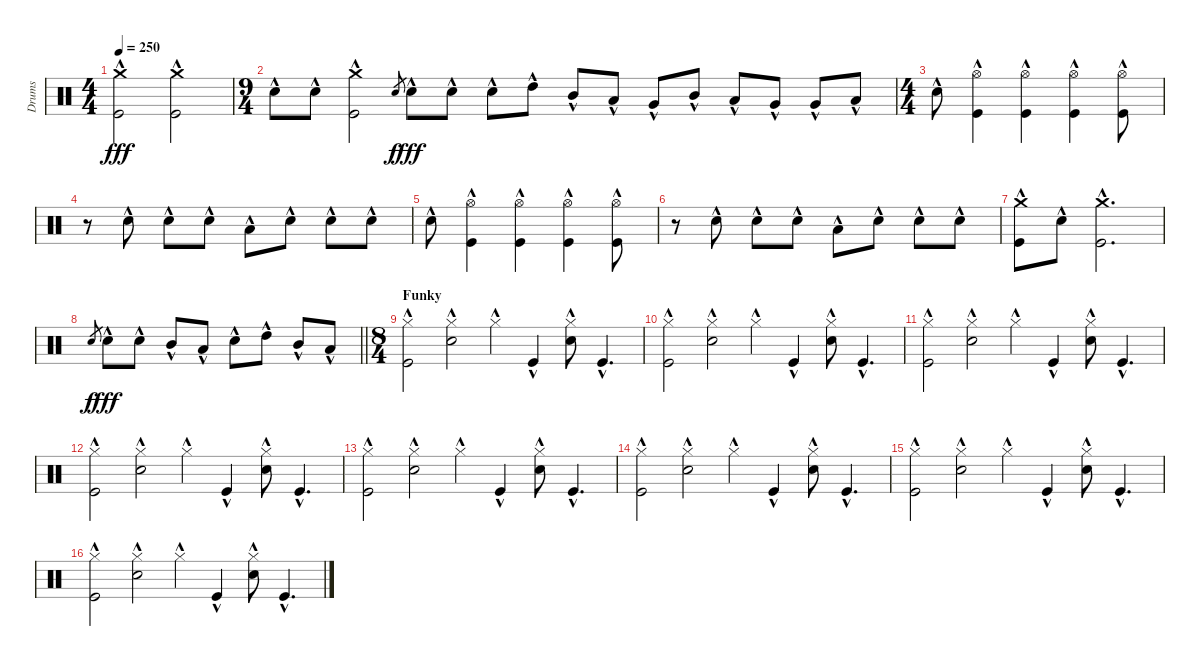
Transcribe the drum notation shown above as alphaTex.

\track ("Drums" "Drums") {instrument percussion}
\staff {score}
\articulation defaults
\ts (4 4)
\tempo 250
\clef neutral
\ks c
("Crash medium (hit)"{hac} "Kick (hit)"{hac}).2{dy fff} ("Crash medium (hit)"{hac} "Kick (hit)"{hac}).2 |
\ts (9 4)
"Snare (hit) 2"{hac}.8 "Snare (hit) 2"{hac}.8 ("Crash medium (hit)"{hac} "Kick (hit)"{hac}).2 "Snare (hit) 2".8{gr dy f} "Snare (hit) 2"{hac}.8{dy fff} "Snare (hit) 2"{hac}.8 "Snare (hit) 2"{hac}.8 "High Tom (hit)"{hac}.8 "Mid Tom (hit)"{hac}.8 "Low Tom (hit)"{hac}.8 "Very Low Tom (hit)"{hac}.8 "Mid Tom (hit)"{hac}.8 "Low Tom (hit)"{hac}.8 "Very Low Tom (hit)"{hac}.8 "Very Low Tom (hit)"{hac}.8 "Low Floor Tom (hit)"{hac}.8 |
\ts (4 4)
"Snare (hit) 2"{hac}.8 ("Hi-Hat (open)"{hac} "Kick (hit)"{hac}).4 ("Hi-Hat (open)"{hac} "Kick (hit)"{hac}).4 ("Hi-Hat (open)"{hac} "Kick (hit)"{hac}).4 ("Hi-Hat (open)"{hac} "Kick (hit)"{hac}).8 |
r.8 "Snare (hit) 2"{hac}.8 "Snare (hit) 2"{hac}.8 "Snare (hit) 2"{hac}.8 "Low Tom (hit)"{hac}.8 "Snare (hit) 2"{hac}.8 "Snare (hit) 2"{hac}.8 "Snare (hit) 2"{hac}.8 |
"Snare (hit) 2"{hac}.8 ("Hi-Hat (open)"{hac} "Kick (hit)"{hac}).4 ("Hi-Hat (open)"{hac} "Kick (hit)"{hac}).4 ("Hi-Hat (open)"{hac} "Kick (hit)"{hac}).4 ("Hi-Hat (open)"{hac} "Kick (hit)"{hac}).8 |
r.8 "Snare (hit) 2"{hac}.8 "Snare (hit) 2"{hac}.8 "Snare (hit) 2"{hac}.8 "Low Tom (hit)"{hac}.8 "Snare (hit) 2"{hac}.8 "Snare (hit) 2"{hac}.8 "Snare (hit) 2"{hac}.8 |
("Crash medium (hit)"{hac} "Kick (hit)"{hac}).8 "Snare (hit) 2"{hac}.8 ("Crash medium (hit)"{hac} "Kick (hit)"{hac}).2{d} |
\barLineRight lightlight "Snare (hit) 2".8{gr dy f} "Snare (hit) 2"{hac}.8{dy fff} "Snare (hit) 2"{hac}.8 "Mid Tom (hit)"{hac}.8 "Low Tom (hit)"{hac}.8 "Snare (hit) 2"{hac}.8 "High Tom (hit)"{hac}.8 "Mid Tom (hit)"{hac}.8 "Low Tom (hit)"{hac}.8
|
\ts (8 4)
\section ("" "Funky")
("Hi-Hat (closed)"{hac} "Kick (hit)"{hac}).2 ("Hi-Hat (closed)"{hac} "Snare (hit) 2"{hac}).2 "Hi-Hat (closed)"{hac}.4 "Kick (hit)"{hac}.4 ("Hi-Hat (closed)"{hac} "Snare (hit) 2"{hac}).8 "Kick (hit)"{hac}.4{d} |
("Hi-Hat (closed)"{hac} "Kick (hit)"{hac}).2 ("Hi-Hat (closed)"{hac} "Snare (hit) 2"{hac}).2 "Hi-Hat (closed)"{hac}.4 "Kick (hit)"{hac}.4 ("Hi-Hat (closed)"{hac} "Snare (hit) 2"{hac}).8 "Kick (hit)"{hac}.4{d} |
("Hi-Hat (closed)"{hac} "Kick (hit)"{hac}).2 ("Hi-Hat (closed)"{hac} "Snare (hit) 2"{hac}).2 "Hi-Hat (closed)"{hac}.4 "Kick (hit)"{hac}.4 ("Hi-Hat (closed)"{hac} "Snare (hit) 2"{hac}).8 "Kick (hit)"{hac}.4{d} |
("Hi-Hat (closed)"{hac} "Kick (hit)"{hac}).2 ("Hi-Hat (closed)"{hac} "Snare (hit) 2"{hac}).2 "Hi-Hat (closed)"{hac}.4 "Kick (hit)"{hac}.4 ("Hi-Hat (closed)"{hac} "Snare (hit) 2"{hac}).8 "Kick (hit)"{hac}.4{d} |
("Hi-Hat (closed)"{hac} "Kick (hit)"{hac}).2 ("Hi-Hat (closed)"{hac} "Snare (hit) 2"{hac}).2 "Hi-Hat (closed)"{hac}.4 "Kick (hit)"{hac}.4 ("Hi-Hat (closed)"{hac} "Snare (hit) 2"{hac}).8 "Kick (hit)"{hac}.4{d} |
("Hi-Hat (closed)"{hac} "Kick (hit)"{hac}).2 ("Hi-Hat (closed)"{hac} "Snare (hit) 2"{hac}).2 "Hi-Hat (closed)"{hac}.4 "Kick (hit)"{hac}.4 ("Hi-Hat (closed)"{hac} "Snare (hit) 2"{hac}).8 "Kick (hit)"{hac}.4{d} |
("Hi-Hat (closed)"{hac} "Kick (hit)"{hac}).2 ("Hi-Hat (closed)"{hac} "Snare (hit) 2"{hac}).2 "Hi-Hat (closed)"{hac}.4 "Kick (hit)"{hac}.4 ("Hi-Hat (closed)"{hac} "Snare (hit) 2"{hac}).8 "Kick (hit)"{hac}.4{d} |
("Hi-Hat (closed)"{hac} "Kick (hit)"{hac}).2 ("Hi-Hat (closed)"{hac} "Snare (hit) 2"{hac}).2 "Hi-Hat (closed)"{hac}.4 "Kick (hit)"{hac}.4 ("Hi-Hat (closed)"{hac} "Snare (hit) 2"{hac}).8 "Kick (hit)"{hac}.4{d}
